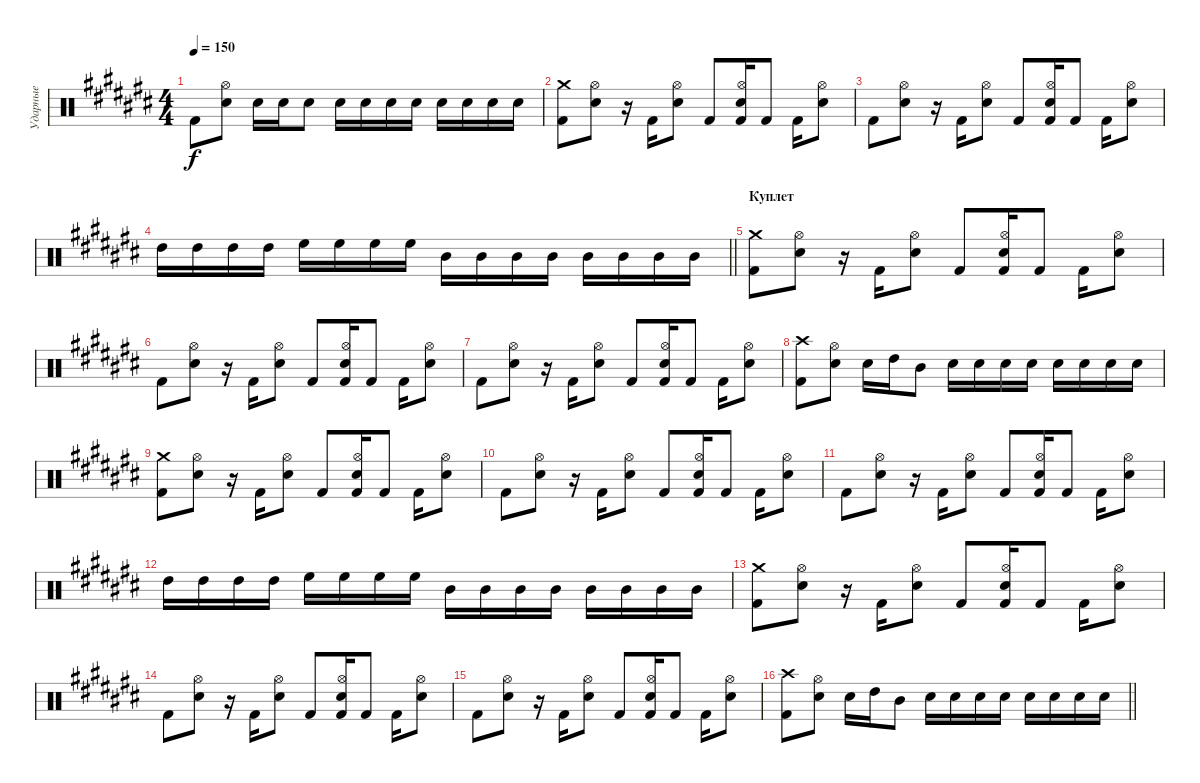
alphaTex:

\track ("Ударные" "Ударные") {instrument percussion}
\staff {score}
\articulation defaults
\ts (4 4)
\tempo 150
\clef neutral
\ks a#minor "Kick (hit) 2".8{dy f}
("Hi-Hat (open)" "Electric Snare (hit)").8 "Electric Snare (hit)".16 "Electric Snare (hit)".16 "Electric Snare (hit)".8 "Electric Snare (hit)".16 "Electric Snare (hit)".16 "Electric Snare (hit)".16 "Electric Snare (hit)".16 "Electric Snare (hit)".16 "Electric Snare (hit)".16 "Electric Snare (hit)".16 "Electric Snare (hit)".16 |
("Crash medium (hit)" "Kick (hit) 2").8 ("Hi-Hat (open)" "Electric Snare (hit)").8 r.16 "Kick (hit) 2".16 ("Hi-Hat (open)" "Electric Snare (hit)").8 "Kick (hit) 2".8 ("Kick (hit) 2" "Hi-Hat (open)" "Electric Snare (hit)").16 "Kick (hit) 2".8 "Kick (hit) 2".16 ("Hi-Hat (open)" "Electric Snare (hit)").8 |
"Kick (hit) 2".8 ("Hi-Hat (open)" "Electric Snare (hit)").8 r.16 "Kick (hit) 2".16 ("Hi-Hat (open)" "Electric Snare (hit)").8 "Kick (hit) 2".8 ("Kick (hit) 2" "Hi-Hat (open)" "Electric Snare (hit)").16 "Kick (hit) 2".8 "Kick (hit) 2".16 ("Hi-Hat (open)" "Electric Snare (hit)").8 |
\barLineRight lightlight "High Tom (hit)".16 "High Tom (hit)".16 "High Tom (hit)".16 "High Tom (hit)".16 "High Floor Tom (hit)".16 "High Floor Tom (hit)".16 "High Floor Tom (hit)".16 "High Floor Tom (hit)".16 "Mid Tom (hit)".16 "Mid Tom (hit)".16 "Mid Tom (hit)".16 "Mid Tom (hit)".16 "Mid Tom (hit)".16 "Mid Tom (hit)".16 "Mid Tom (hit)".16 "Mid Tom (hit)".16
|
\section ("" "Куплет")
("Crash medium (hit)" "Kick (hit) 2").8 ("Hi-Hat (open)" "Electric Snare (hit)").8 r.16 "Kick (hit) 2".16 ("Hi-Hat (open)" "Electric Snare (hit)").8 "Kick (hit) 2".8 ("Kick (hit) 2" "Hi-Hat (open)" "Electric Snare (hit)").16 "Kick (hit) 2".8 "Kick (hit) 2".16 ("Hi-Hat (open)" "Electric Snare (hit)").8 |
"Kick (hit) 2".8 ("Hi-Hat (open)" "Electric Snare (hit)").8 r.16 "Kick (hit) 2".16 ("Hi-Hat (open)" "Electric Snare (hit)").8 "Kick (hit) 2".8 ("Kick (hit) 2" "Hi-Hat (open)" "Electric Snare (hit)").16 "Kick (hit) 2".8 "Kick (hit) 2".16 ("Hi-Hat (open)" "Electric Snare (hit)").8 |
"Kick (hit) 2".8 ("Hi-Hat (open)" "Electric Snare (hit)").8 r.16 "Kick (hit) 2".16 ("Hi-Hat (open)" "Electric Snare (hit)").8 "Kick (hit) 2".8 ("Kick (hit) 2" "Hi-Hat (open)" "Electric Snare (hit)").16 "Kick (hit) 2".8 "Kick (hit) 2".16 ("Hi-Hat (open)" "Electric Snare (hit)").8 |
("Crash high (hit)" "Kick (hit) 2").8 ("Hi-Hat (open)" "Electric Snare (hit)").8 "Electric Snare (hit)".16 "High Tom (hit)".16 "Mid Tom (hit)".8 "Electric Snare (hit)".16 "Electric Snare (hit)".16 "Electric Snare (hit)".16 "Electric Snare (hit)".16 "Electric Snare (hit)".16 "Electric Snare (hit)".16 "Electric Snare (hit)".16 "Electric Snare (hit)".16 |
("Crash medium (hit)" "Kick (hit) 2").8 ("Hi-Hat (open)" "Electric Snare (hit)").8 r.16 "Kick (hit) 2".16 ("Hi-Hat (open)" "Electric Snare (hit)").8 "Kick (hit) 2".8 ("Kick (hit) 2" "Hi-Hat (open)" "Electric Snare (hit)").16 "Kick (hit) 2".8 "Kick (hit) 2".16 ("Hi-Hat (open)" "Electric Snare (hit)").8 |
"Kick (hit) 2".8 ("Hi-Hat (open)" "Electric Snare (hit)").8 r.16 "Kick (hit) 2".16 ("Hi-Hat (open)" "Electric Snare (hit)").8 "Kick (hit) 2".8 ("Kick (hit) 2" "Hi-Hat (open)" "Electric Snare (hit)").16 "Kick (hit) 2".8 "Kick (hit) 2".16 ("Hi-Hat (open)" "Electric Snare (hit)").8 |
"Kick (hit) 2".8 ("Hi-Hat (open)" "Electric Snare (hit)").8 r.16 "Kick (hit) 2".16 ("Hi-Hat (open)" "Electric Snare (hit)").8 "Kick (hit) 2".8 ("Kick (hit) 2" "Hi-Hat (open)" "Electric Snare (hit)").16 "Kick (hit) 2".8 "Kick (hit) 2".16 ("Hi-Hat (open)" "Electric Snare (hit)").8 |
"High Tom (hit)".16 "High Tom (hit)".16 "High Tom (hit)".16 "High Tom (hit)".16 "High Floor Tom (hit)".16 "High Floor Tom (hit)".16 "High Floor Tom (hit)".16 "High Floor Tom (hit)".16 "Mid Tom (hit)".16 "Mid Tom (hit)".16 "Mid Tom (hit)".16 "Mid Tom (hit)".16 "Mid Tom (hit)".16 "Mid Tom (hit)".16 "Mid Tom (hit)".16 "Mid Tom (hit)".16 |
("Crash medium (hit)" "Kick (hit) 2").8 ("Hi-Hat (open)" "Electric Snare (hit)").8 r.16 "Kick (hit) 2".16 ("Hi-Hat (open)" "Electric Snare (hit)").8 "Kick (hit) 2".8 ("Kick (hit) 2" "Hi-Hat (open)" "Electric Snare (hit)").16 "Kick (hit) 2".8 "Kick (hit) 2".16 ("Hi-Hat (open)" "Electric Snare (hit)").8 |
"Kick (hit) 2".8 ("Hi-Hat (open)" "Electric Snare (hit)").8 r.16 "Kick (hit) 2".16 ("Hi-Hat (open)" "Electric Snare (hit)").8 "Kick (hit) 2".8 ("Kick (hit) 2" "Hi-Hat (open)" "Electric Snare (hit)").16 "Kick (hit) 2".8 "Kick (hit) 2".16 ("Hi-Hat (open)" "Electric Snare (hit)").8 |
"Kick (hit) 2".8 ("Hi-Hat (open)" "Electric Snare (hit)").8 r.16 "Kick (hit) 2".16 ("Hi-Hat (open)" "Electric Snare (hit)").8 "Kick (hit) 2".8 ("Kick (hit) 2" "Hi-Hat (open)" "Electric Snare (hit)").16 "Kick (hit) 2".8 "Kick (hit) 2".16 ("Hi-Hat (open)" "Electric Snare (hit)").8 |
\barLineRight lightlight
("Crash high (hit)" "Kick (hit) 2").8 ("Hi-Hat (open)" "Electric Snare (hit)").8 "Electric Snare (hit)".16 "High Tom (hit)".16 "Mid Tom (hit)".8 "Electric Snare (hit)".16 "Electric Snare (hit)".16 "Electric Snare (hit)".16 "Electric Snare (hit)".16 "Electric Snare (hit)".16 "Electric Snare (hit)".16 "Electric Snare (hit)".16 "Electric Snare (hit)".16
